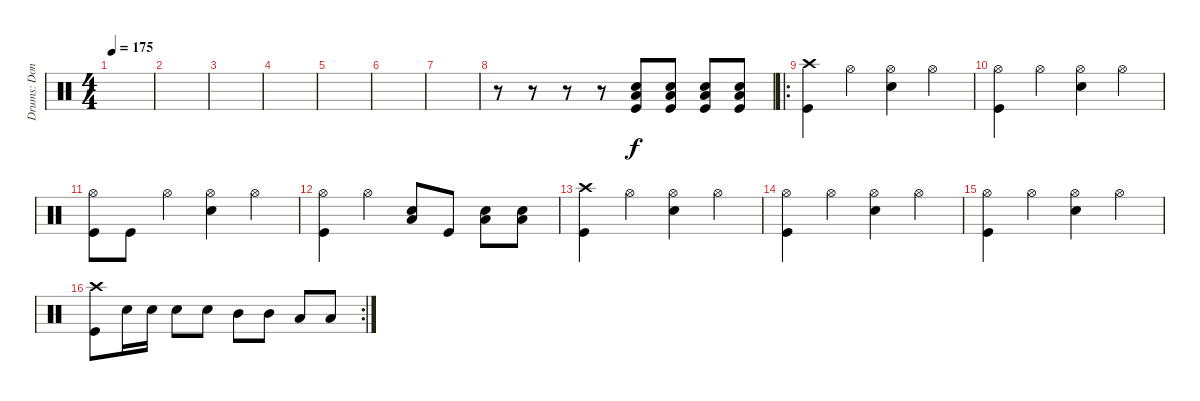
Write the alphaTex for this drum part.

\track ("Drums: Donald Tardy" "Drums: Don") {instrument percussion}
\staff {score}
\articulation defaults
\ts (4 4)
\tempo 175
\clef neutral
\ks c
|
|
|
|
|
|
|
r.8 r.8 r.8 r.8 ("Low Floor Tom (hit)" "Snare (hit) 2" "Kick (hit)").8 ("Low Floor Tom (hit)" "Snare (hit) 2" "Kick (hit)").8 ("Low Floor Tom (hit)" "Snare (hit) 2" "Kick (hit)").8 ("Low Floor Tom (hit)" "Snare (hit) 2" "Kick (hit)").8 |
\ro
("Crash high (hit)" "Kick (hit)").4 "Hi-Hat (open)".4 ("Hi-Hat (open)" "Snare (hit) 2").4 "Hi-Hat (open)".4 |
("Hi-Hat (open)" "Kick (hit)").4 "Hi-Hat (open)".4 ("Hi-Hat (open)" "Snare (hit) 2").4 "Hi-Hat (open)".4 |
("Hi-Hat (open)" "Kick (hit)").8 "Kick (hit)".8 "Hi-Hat (open)".4 ("Hi-Hat (open)" "Snare (hit) 2").4 "Hi-Hat (open)".4 |
("Hi-Hat (open)" "Kick (hit)").4 "Hi-Hat (open)".4 ("Low Floor Tom (hit)" "Snare (hit) 2").8 "Kick (hit)".8 ("Low Floor Tom (hit)" "Snare (hit) 2").8 ("Low Floor Tom (hit)" "Snare (hit) 2").8 |
("Crash high (hit)" "Kick (hit)").4 "Hi-Hat (open)".4 ("Hi-Hat (open)" "Snare (hit) 2").4 "Hi-Hat (open)".4 |
("Hi-Hat (open)" "Kick (hit)").4 "Hi-Hat (open)".4 ("Hi-Hat (open)" "Snare (hit) 2").4 "Hi-Hat (open)".4 |
("Hi-Hat (open)" "Kick (hit)").4 "Hi-Hat (open)".4 ("Hi-Hat (open)" "Snare (hit) 2").4 "Hi-Hat (open)".4 |
\rc 2
("Crash high (hit)" "Kick (hit)").8 "Snare (hit) 2".16 "Snare (hit) 2".16 "Snare (hit) 2".8 "Snare (hit) 2".8 "Mid Tom (hit)".8 "Mid Tom (hit)".8 "Low Tom (hit)".8 "Low Tom (hit)".8
